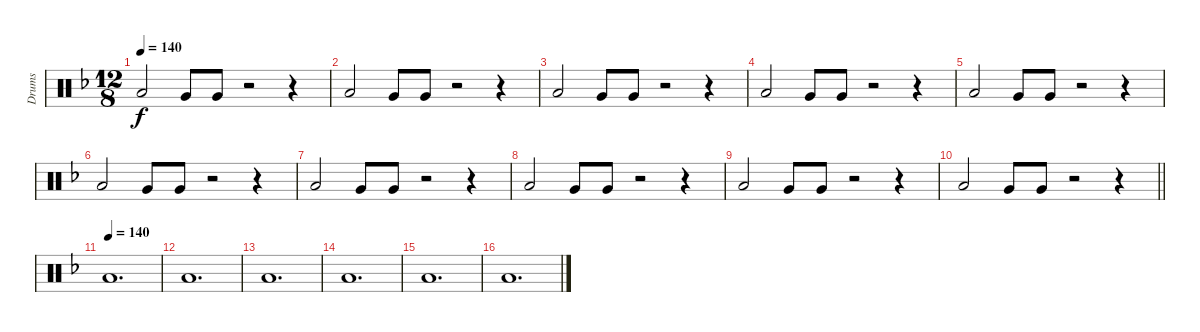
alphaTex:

\track ("Drums" "Drums") {instrument percussion}
\staff {score}
\articulation defaults
\ts (12 8)
\tempo 140
\clef neutral
\ks f "Low Floor Tom (hit)".2{dy f} "Very Low Tom (hit)".8 "Very Low Tom (hit)".8
r.2 r.4 |
"Low Floor Tom (hit)".2 "Very Low Tom (hit)".8 "Very Low Tom (hit)".8 r.2 r.4 |
"Low Floor Tom (hit)".2 "Very Low Tom (hit)".8 "Very Low Tom (hit)".8 r.2 r.4 |
"Low Floor Tom (hit)".2 "Very Low Tom (hit)".8 "Very Low Tom (hit)".8 r.2 r.4 |
"Low Floor Tom (hit)".2 "Very Low Tom (hit)".8 "Very Low Tom (hit)".8 r.2 r.4 |
"Low Floor Tom (hit)".2 "Very Low Tom (hit)".8 "Very Low Tom (hit)".8 r.2 r.4 |
"Low Floor Tom (hit)".2 "Very Low Tom (hit)".8 "Very Low Tom (hit)".8 r.2 r.4 |
"Low Floor Tom (hit)".2 "Very Low Tom (hit)".8 "Very Low Tom (hit)".8 r.2 r.4 |
"Low Floor Tom (hit)".2 "Very Low Tom (hit)".8 "Very Low Tom (hit)".8 r.2 r.4 |
\barLineRight lightlight "Low Floor Tom (hit)".2 "Very Low Tom (hit)".8 "Very Low Tom (hit)".8
r.2 r.4 |
\tempo (140)
"Low Floor Tom (hit)".1{d} |
"Low Floor Tom (hit)".1{d} |
"Low Floor Tom (hit)".1{d} |
"Low Floor Tom (hit)".1{d} |
"Low Floor Tom (hit)".1{d} |
"Low Floor Tom (hit)".1{d}
